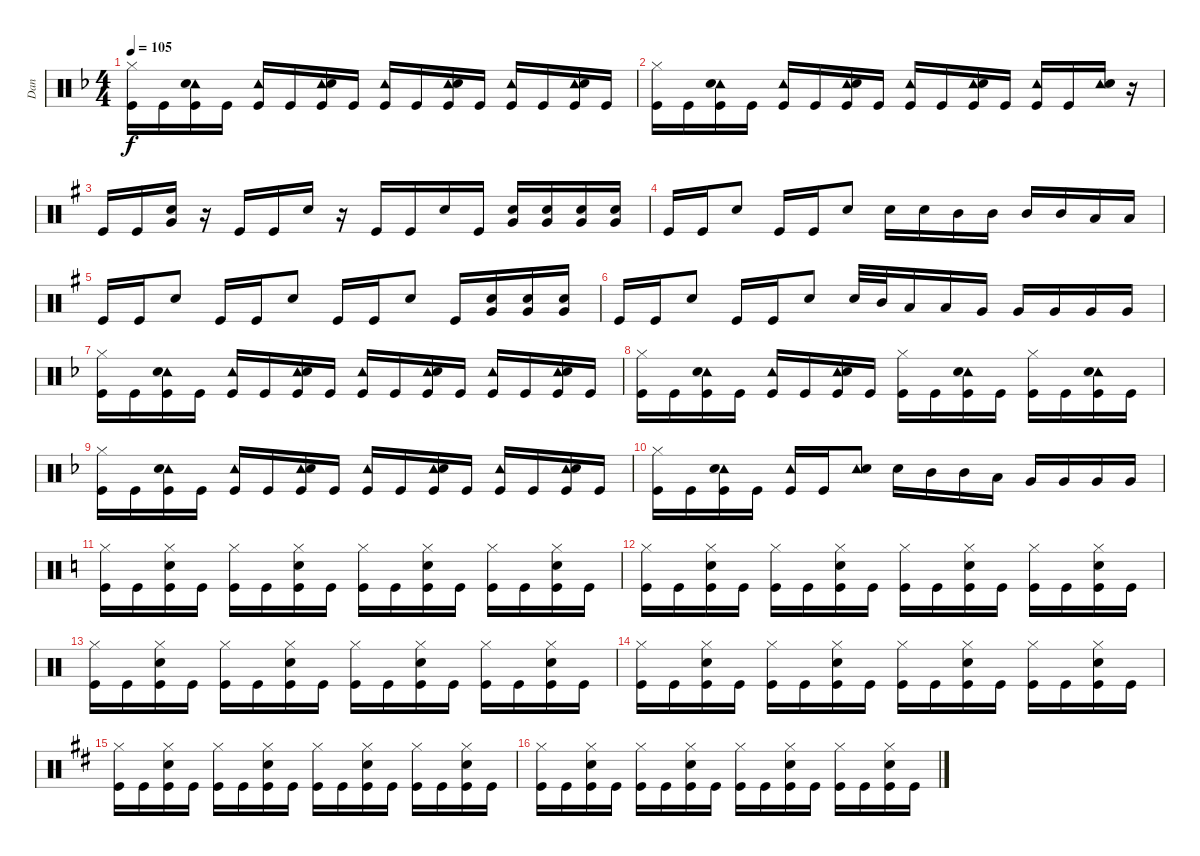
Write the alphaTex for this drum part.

\track ("Dan" "Dan") {instrument percussion}
\staff {score}
\articulation defaults
\ts (4 4)
\tempo 105
\clef neutral
\ks f
("Hi-Hat (closed)" "Kick (hit)").16{dy f} "Kick (hit)".16 ("Tambourine (hit)" "Snare (hit) 2" "Kick (hit)").16 "Kick (hit)".16 ("Tambourine (hit)" "Kick (hit)").16 "Kick (hit)".16 ("Tambourine (hit)" "Snare (hit) 2" "Kick (hit)").16 "Kick (hit)".16 ("Tambourine (hit)" "Kick (hit)").16 "Kick (hit)".16 ("Tambourine (hit)" "Snare (hit) 2" "Kick (hit)").16 "Kick (hit)".16 ("Tambourine (hit)" "Kick (hit)").16 "Kick (hit)".16 ("Tambourine (hit)" "Snare (hit) 2" "Kick (hit)").16 "Kick (hit)".16 |
("Hi-Hat (closed)" "Kick (hit)").16 "Kick (hit)".16 ("Tambourine (hit)" "Snare (hit) 2" "Kick (hit)").16 "Kick (hit)".16 ("Tambourine (hit)" "Kick (hit)").16 "Kick (hit)".16 ("Tambourine (hit)" "Snare (hit) 2" "Kick (hit)").16 "Kick (hit)".16 ("Tambourine (hit)" "Kick (hit)").16 "Kick (hit)".16 ("Tambourine (hit)" "Snare (hit) 2" "Kick (hit)").16 "Kick (hit)".16 ("Tambourine (hit)" "Kick (hit)").16 "Kick (hit)".16 ("Tambourine (hit)" "Snare (hit) 2").16 r.16 |
\ks g "Kick (hit)".16 "Kick (hit)".16
("Snare (hit) 2" "Very Low Tom (hit)").16 r.16 "Kick (hit)".16 "Kick (hit)".16 "Snare (hit) 2".16 r.16 "Kick (hit)".16 "Kick (hit)".16 "Snare (hit) 2".16 "Kick (hit)".16 ("Snare (hit) 2" "Very Low Tom (hit)").16 ("Snare (hit) 2" "Very Low Tom (hit)").16 ("Snare (hit) 2" "Very Low Tom (hit)").16 ("Snare (hit) 2" "Very Low Tom (hit)").16 |
"Kick (hit)".16 "Kick (hit)".16 "Snare (hit) 2".8 "Kick (hit)".16 "Kick (hit)".16 "Snare (hit) 2".8 "Snare (hit) 2".16 "Snare (hit) 2".16 "Mid Tom (hit)".16 "Mid Tom (hit)".16 "Mid Tom (hit)".16 "Mid Tom (hit)".16 "Low Tom (hit)".16 "Low Tom (hit)".16 |
"Kick (hit)".16 "Kick (hit)".16 "Snare (hit) 2".8 "Kick (hit)".16 "Kick (hit)".16 "Snare (hit) 2".8 "Kick (hit)".16 "Kick (hit)".16 "Snare (hit) 2".8 "Kick (hit)".16 ("Snare (hit) 2" "Very Low Tom (hit)").16 ("Snare (hit) 2" "Very Low Tom (hit)").16 ("Snare (hit) 2" "Very Low Tom (hit)").16 |
"Kick (hit)".16 "Kick (hit)".16 "Snare (hit) 2".8 "Kick (hit)".16 "Kick (hit)".16 "Snare (hit) 2".8 "Snare (hit) 2".32 "Mid Tom (hit)".32 "Low Tom (hit)".16 "Low Tom (hit)".16 "Very Low Tom (hit)".16 "Very Low Tom (hit)".16 "Very Low Tom (hit)".16 "Very Low Tom (hit)".16 "Very Low Tom (hit)".16 |
\ks f
("Hi-Hat (closed)" "Kick (hit)").16 "Kick (hit)".16 ("Tambourine (hit)" "Snare (hit) 2" "Kick (hit)").16 "Kick (hit)".16 ("Tambourine (hit)" "Kick (hit)").16 "Kick (hit)".16 ("Tambourine (hit)" "Snare (hit) 2" "Kick (hit)").16 "Kick (hit)".16 ("Tambourine (hit)" "Kick (hit)").16 "Kick (hit)".16 ("Tambourine (hit)" "Snare (hit) 2" "Kick (hit)").16 "Kick (hit)".16 ("Tambourine (hit)" "Kick (hit)").16 "Kick (hit)".16 ("Tambourine (hit)" "Snare (hit) 2" "Kick (hit)").16 "Kick (hit)".16 |
("Hi-Hat (closed)" "Kick (hit)").16 "Kick (hit)".16 ("Tambourine (hit)" "Snare (hit) 2" "Kick (hit)").16 "Kick (hit)".16 ("Tambourine (hit)" "Kick (hit)").16 "Kick (hit)".16 ("Tambourine (hit)" "Snare (hit) 2" "Kick (hit)").16 "Kick (hit)".16 ("Hi-Hat (closed)" "Kick (hit)").16 "Kick (hit)".16 ("Tambourine (hit)" "Snare (hit) 2" "Kick (hit)").16 "Kick (hit)".16 ("Hi-Hat (closed)" "Kick (hit)").16 "Kick (hit)".16 ("Tambourine (hit)" "Snare (hit) 2" "Kick (hit)").16 "Kick (hit)".16 |
("Hi-Hat (closed)" "Kick (hit)").16 "Kick (hit)".16 ("Tambourine (hit)" "Snare (hit) 2" "Kick (hit)").16 "Kick (hit)".16 ("Tambourine (hit)" "Kick (hit)").16 "Kick (hit)".16 ("Tambourine (hit)" "Snare (hit) 2" "Kick (hit)").16 "Kick (hit)".16 ("Tambourine (hit)" "Kick (hit)").16 "Kick (hit)".16 ("Tambourine (hit)" "Snare (hit) 2" "Kick (hit)").16 "Kick (hit)".16 ("Tambourine (hit)" "Kick (hit)").16 "Kick (hit)".16 ("Tambourine (hit)" "Snare (hit) 2" "Kick (hit)").16 "Kick (hit)".16 |
("Hi-Hat (closed)" "Kick (hit)").16 "Kick (hit)".16 ("Tambourine (hit)" "Snare (hit) 2" "Kick (hit)").16 "Kick (hit)".16 ("Tambourine (hit)" "Kick (hit)").16 "Kick (hit)".16 ("Tambourine (hit)" "Snare (hit) 2").8 "Snare (hit) 2".16 "Mid Tom (hit)".16 "Mid Tom (hit)".16 "Low Tom (hit)".16 "Very Low Tom (hit)".16 "Very Low Tom (hit)".16 "Very Low Tom (hit)".16 "Very Low Tom (hit)".16 |
\ks c
("Hi-Hat (closed)" "Kick (hit)").16 "Kick (hit)".16 ("Hi-Hat (closed)" "Snare (hit) 2" "Kick (hit)").16 "Kick (hit)".16 ("Hi-Hat (closed)" "Kick (hit)").16 "Kick (hit)".16 ("Hi-Hat (closed)" "Snare (hit) 2" "Kick (hit)").16 "Kick (hit)".16 ("Hi-Hat (closed)" "Kick (hit)").16 "Kick (hit)".16 ("Hi-Hat (closed)" "Snare (hit) 2" "Kick (hit)").16 "Kick (hit)".16 ("Hi-Hat (closed)" "Kick (hit)").16 "Kick (hit)".16 ("Hi-Hat (closed)" "Snare (hit) 2" "Kick (hit)").16 "Kick (hit)".16 |
("Hi-Hat (closed)" "Kick (hit)").16 "Kick (hit)".16 ("Hi-Hat (closed)" "Snare (hit) 2" "Kick (hit)").16 "Kick (hit)".16 ("Hi-Hat (closed)" "Kick (hit)").16 "Kick (hit)".16 ("Hi-Hat (closed)" "Snare (hit) 2" "Kick (hit)").16 "Kick (hit)".16 ("Hi-Hat (closed)" "Kick (hit)").16 "Kick (hit)".16 ("Hi-Hat (closed)" "Snare (hit) 2" "Kick (hit)").16 "Kick (hit)".16 ("Hi-Hat (closed)" "Kick (hit)").16 "Kick (hit)".16 ("Hi-Hat (closed)" "Snare (hit) 2" "Kick (hit)").16 "Kick (hit)".16 |
("Hi-Hat (closed)" "Kick (hit)").16 "Kick (hit)".16 ("Hi-Hat (closed)" "Snare (hit) 2" "Kick (hit)").16 "Kick (hit)".16 ("Hi-Hat (closed)" "Kick (hit)").16 "Kick (hit)".16 ("Hi-Hat (closed)" "Snare (hit) 2" "Kick (hit)").16 "Kick (hit)".16 ("Hi-Hat (closed)" "Kick (hit)").16 "Kick (hit)".16 ("Hi-Hat (closed)" "Snare (hit) 2" "Kick (hit)").16 "Kick (hit)".16 ("Hi-Hat (closed)" "Kick (hit)").16 "Kick (hit)".16 ("Hi-Hat (closed)" "Snare (hit) 2" "Kick (hit)").16 "Kick (hit)".16 |
("Hi-Hat (closed)" "Kick (hit)").16 "Kick (hit)".16 ("Hi-Hat (closed)" "Snare (hit) 2" "Kick (hit)").16 "Kick (hit)".16 ("Hi-Hat (closed)" "Kick (hit)").16 "Kick (hit)".16 ("Hi-Hat (closed)" "Snare (hit) 2" "Kick (hit)").16 "Kick (hit)".16 ("Hi-Hat (closed)" "Kick (hit)").16 "Kick (hit)".16 ("Hi-Hat (closed)" "Snare (hit) 2" "Kick (hit)").16 "Kick (hit)".16 ("Hi-Hat (closed)" "Kick (hit)").16 "Kick (hit)".16 ("Hi-Hat (closed)" "Snare (hit) 2" "Kick (hit)").16 "Kick (hit)".16 |
\ks d
("Hi-Hat (closed)" "Kick (hit)").16 "Kick (hit)".16 ("Hi-Hat (closed)" "Snare (hit) 2" "Kick (hit)").16 "Kick (hit)".16 ("Hi-Hat (closed)" "Kick (hit)").16 "Kick (hit)".16 ("Hi-Hat (closed)" "Snare (hit) 2" "Kick (hit)").16 "Kick (hit)".16 ("Hi-Hat (closed)" "Kick (hit)").16 "Kick (hit)".16 ("Hi-Hat (closed)" "Snare (hit) 2" "Kick (hit)").16 "Kick (hit)".16 ("Hi-Hat (closed)" "Kick (hit)").16 "Kick (hit)".16 ("Hi-Hat (closed)" "Snare (hit) 2" "Kick (hit)").16 "Kick (hit)".16 |
("Hi-Hat (closed)" "Kick (hit)").16 "Kick (hit)".16 ("Hi-Hat (closed)" "Snare (hit) 2" "Kick (hit)").16 "Kick (hit)".16 ("Hi-Hat (closed)" "Kick (hit)").16 "Kick (hit)".16 ("Hi-Hat (closed)" "Snare (hit) 2" "Kick (hit)").16 "Kick (hit)".16 ("Hi-Hat (closed)" "Kick (hit)").16 "Kick (hit)".16 ("Hi-Hat (closed)" "Snare (hit) 2" "Kick (hit)").16 "Kick (hit)".16 ("Hi-Hat (closed)" "Kick (hit)").16 "Kick (hit)".16 ("Hi-Hat (closed)" "Snare (hit) 2" "Kick (hit)").16 "Kick (hit)".16
